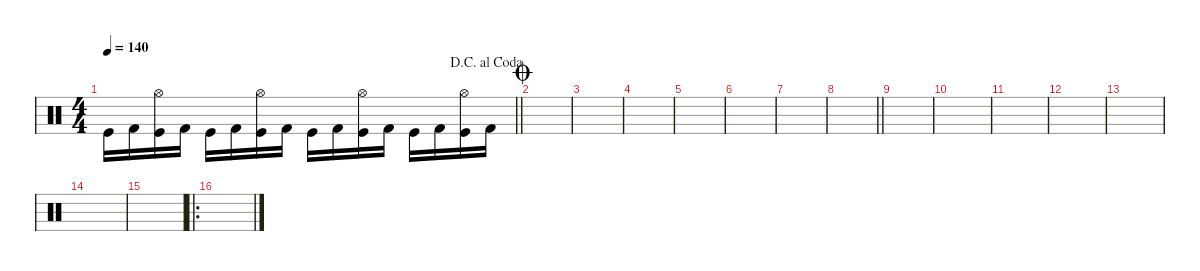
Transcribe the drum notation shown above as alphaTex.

\defaultSystemsLayout 4
\hideDynamics
\bracketExtendMode nobrackets
\singleTrackTrackNamePolicy hidden
\multiTrackTrackNamePolicy hidden
\firstSystemTrackNameMode fullname
\firstSystemTrackNameOrientation horizontal
\otherSystemsTrackNameOrientation horizontal
\track ("Drumkit" "drm.") {mute instrument percussion}
\staff {score}
\articulation defaults
\ts (4 4)
\jump dacapoalcoda
\tempo 140
\clef neutral
\barLineRight lightlight
\ks c "Kick (hit)".16{dy mf beam Down} "Kick (hit) 2".16{beam Down}
("Kick (hit)" "Hi-Hat (open)").16{beam Down} "Kick (hit) 2".16{beam Down} "Kick (hit)".16{beam Down} "Kick (hit) 2".16{beam Down} ("Kick (hit)" "Hi-Hat (open)").16{beam Down} "Kick (hit) 2".16{beam Down} "Kick (hit)".16{beam Down} "Kick (hit) 2".16{beam Down} ("Kick (hit)" "Hi-Hat (open)").16{beam Down} "Kick (hit) 2".16{beam Down} "Kick (hit)".16{beam Down} "Kick (hit) 2".16{beam Down} ("Kick (hit)" "Hi-Hat (open)").16{beam Down} "Kick (hit) 2".16{beam Down} |
\jump coda
|
|
|
|
|
|
\barLineRight lightlight
|
|
|
|
|
|
|
|
\ro
